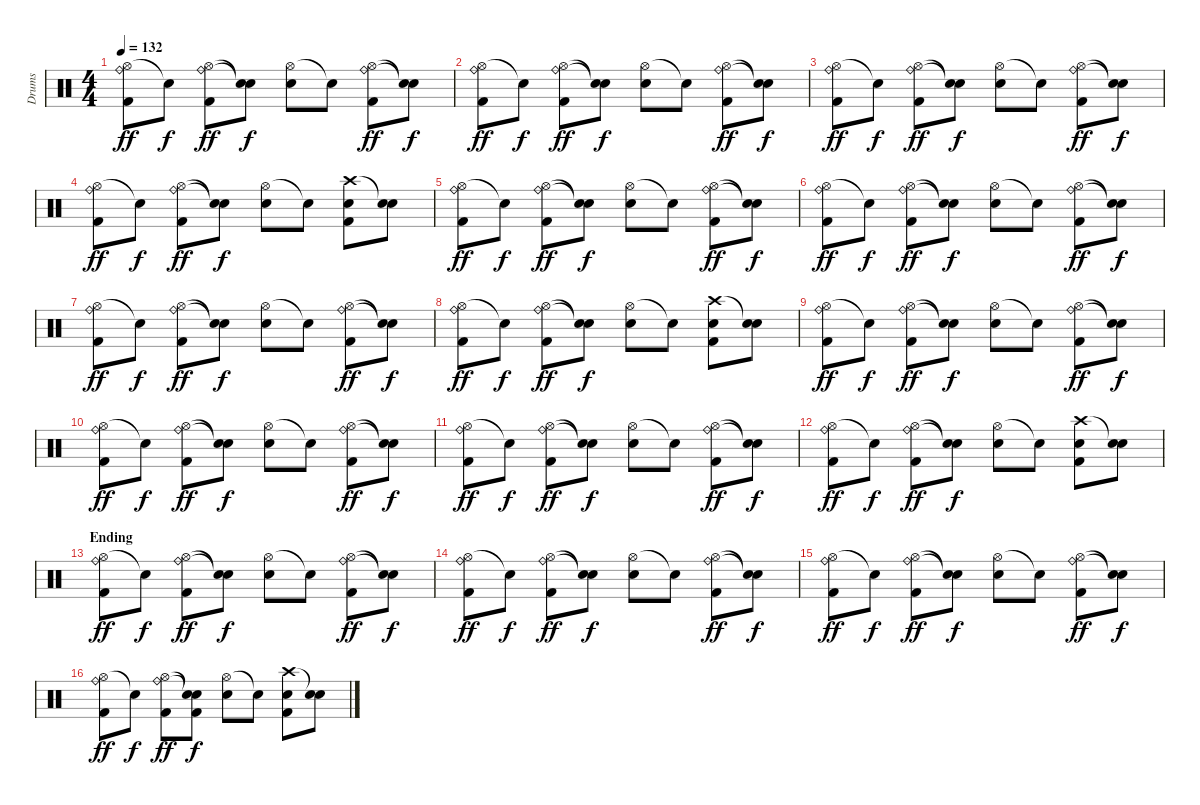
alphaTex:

\track ("Drums" "Drums") {instrument percussion}
\staff {score}
\articulation defaults
\ts (4 4)
\tempo 132
\clef neutral
\ks c
("Hi-Hat (open)" "Ride (bell)" "Kick (hit) 2").8{dy ff} "Snare (hit)"{t}.8{dy f} ("Hi-Hat (open)" "Ride (bell)" "Kick (hit) 2").8{dy ff} ("Snare (hit)"{t} "Snare (hit)"{t}).8{dy f} ("Hi-Hat (open)" "Electric Snare (hit)").8 "Snare (hit)"{t}.8 ("Hi-Hat (open)" "Ride (bell)" "Kick (hit) 2").8{dy ff} ("Snare (hit)"{t} "Snare (hit)"{t}).8{dy f} |
("Hi-Hat (open)" "Ride (bell)" "Kick (hit) 2").8{dy ff} "Snare (hit)"{t}.8{dy f} ("Hi-Hat (open)" "Ride (bell)" "Kick (hit) 2").8{dy ff} ("Snare (hit)"{t} "Snare (hit)"{t}).8{dy f} ("Hi-Hat (open)" "Electric Snare (hit)").8 "Snare (hit)"{t}.8 ("Hi-Hat (open)" "Ride (bell)" "Kick (hit) 2").8{dy ff} ("Snare (hit)"{t} "Snare (hit)"{t}).8{dy f} |
("Hi-Hat (open)" "Ride (bell)" "Kick (hit) 2").8{dy ff} "Snare (hit)"{t}.8{dy f} ("Hi-Hat (open)" "Ride (bell)" "Kick (hit) 2").8{dy ff} ("Snare (hit)"{t} "Snare (hit)"{t}).8{dy f} ("Hi-Hat (open)" "Electric Snare (hit)").8 "Snare (hit)"{t}.8 ("Hi-Hat (open)" "Ride (bell)" "Kick (hit) 2").8{dy ff} ("Snare (hit)"{t} "Snare (hit)"{t}).8{dy f} |
("Hi-Hat (open)" "Ride (bell)" "Kick (hit) 2").8{dy ff} "Snare (hit)"{t}.8{dy f} ("Hi-Hat (open)" "Ride (bell)" "Kick (hit) 2").8{dy ff} ("Snare (hit)"{t} "Snare (hit)"{t}).8{dy f} ("Hi-Hat (open)" "Electric Snare (hit)").8 "Snare (hit)"{t}.8 ("Crash high (hit)" "Electric Snare (hit)" "Kick (hit) 2").8 ("Snare (hit)"{t} "Electric Snare (hit)").8 |
("Hi-Hat (open)" "Ride (bell)" "Kick (hit) 2").8{dy ff} "Snare (hit)"{t}.8{dy f} ("Hi-Hat (open)" "Ride (bell)" "Kick (hit) 2").8{dy ff} ("Snare (hit)"{t} "Snare (hit)"{t}).8{dy f} ("Hi-Hat (open)" "Electric Snare (hit)").8 "Snare (hit)"{t}.8 ("Hi-Hat (open)" "Ride (bell)" "Kick (hit) 2").8{dy ff} ("Snare (hit)"{t} "Snare (hit)"{t}).8{dy f} |
("Hi-Hat (open)" "Ride (bell)" "Kick (hit) 2").8{dy ff} "Snare (hit)"{t}.8{dy f} ("Hi-Hat (open)" "Ride (bell)" "Kick (hit) 2").8{dy ff} ("Snare (hit)"{t} "Snare (hit)"{t}).8{dy f} ("Hi-Hat (open)" "Electric Snare (hit)").8 "Snare (hit)"{t}.8 ("Hi-Hat (open)" "Ride (bell)" "Kick (hit) 2").8{dy ff} ("Snare (hit)"{t} "Snare (hit)"{t}).8{dy f} |
("Hi-Hat (open)" "Ride (bell)" "Kick (hit) 2").8{dy ff} "Snare (hit)"{t}.8{dy f} ("Hi-Hat (open)" "Ride (bell)" "Kick (hit) 2").8{dy ff} ("Snare (hit)"{t} "Snare (hit)"{t}).8{dy f} ("Hi-Hat (open)" "Electric Snare (hit)").8 "Snare (hit)"{t}.8 ("Hi-Hat (open)" "Ride (bell)" "Kick (hit) 2").8{dy ff} ("Snare (hit)"{t} "Snare (hit)"{t}).8{dy f} |
("Hi-Hat (open)" "Ride (bell)" "Kick (hit) 2").8{dy ff} "Snare (hit)"{t}.8{dy f} ("Hi-Hat (open)" "Ride (bell)" "Kick (hit) 2").8{dy ff} ("Snare (hit)"{t} "Snare (hit)"{t}).8{dy f} ("Hi-Hat (open)" "Electric Snare (hit)").8 "Snare (hit)"{t}.8 ("Crash high (hit)" "Electric Snare (hit)" "Kick (hit) 2").8 ("Snare (hit)"{t} "Electric Snare (hit)").8 |
("Hi-Hat (open)" "Ride (bell)" "Kick (hit) 2").8{dy ff} "Snare (hit)"{t}.8{dy f} ("Hi-Hat (open)" "Ride (bell)" "Kick (hit) 2").8{dy ff} ("Snare (hit)"{t} "Snare (hit)"{t}).8{dy f} ("Hi-Hat (open)" "Electric Snare (hit)").8 "Snare (hit)"{t}.8 ("Hi-Hat (open)" "Ride (bell)" "Kick (hit) 2").8{dy ff} ("Snare (hit)"{t} "Snare (hit)"{t}).8{dy f} |
("Hi-Hat (open)" "Ride (bell)" "Kick (hit) 2").8{dy ff} "Snare (hit)"{t}.8{dy f} ("Hi-Hat (open)" "Ride (bell)" "Kick (hit) 2").8{dy ff} ("Snare (hit)"{t} "Snare (hit)"{t}).8{dy f} ("Hi-Hat (open)" "Electric Snare (hit)").8 "Snare (hit)"{t}.8 ("Hi-Hat (open)" "Ride (bell)" "Kick (hit) 2").8{dy ff} ("Snare (hit)"{t} "Snare (hit)"{t}).8{dy f} |
("Hi-Hat (open)" "Ride (bell)" "Kick (hit) 2").8{dy ff} "Snare (hit)"{t}.8{dy f} ("Hi-Hat (open)" "Ride (bell)" "Kick (hit) 2").8{dy ff} ("Snare (hit)"{t} "Snare (hit)"{t}).8{dy f} ("Hi-Hat (open)" "Electric Snare (hit)").8 "Snare (hit)"{t}.8 ("Hi-Hat (open)" "Ride (bell)" "Kick (hit) 2").8{dy ff} ("Snare (hit)"{t} "Snare (hit)"{t}).8{dy f} |
("Hi-Hat (open)" "Ride (bell)" "Kick (hit) 2").8{dy ff} "Snare (hit)"{t}.8{dy f} ("Hi-Hat (open)" "Ride (bell)" "Kick (hit) 2").8{dy ff} ("Snare (hit)"{t} "Snare (hit)"{t}).8{dy f} ("Hi-Hat (open)" "Electric Snare (hit)").8 "Snare (hit)"{t}.8 ("Crash high (hit)" "Electric Snare (hit)" "Kick (hit) 2").8 ("Snare (hit)"{t} "Electric Snare (hit)").8 |
\section ("" "Ending")
("Hi-Hat (open)" "Ride (bell)" "Kick (hit) 2").8{dy ff} "Snare (hit)"{t}.8{dy f} ("Hi-Hat (open)" "Ride (bell)" "Kick (hit) 2").8{dy ff} ("Snare (hit)"{t} "Snare (hit)"{t}).8{dy f} ("Hi-Hat (open)" "Electric Snare (hit)").8 "Snare (hit)"{t}.8 ("Hi-Hat (open)" "Ride (bell)" "Kick (hit) 2").8{dy ff} ("Snare (hit)"{t} "Snare (hit)"{t}).8{dy f} |
("Hi-Hat (open)" "Ride (bell)" "Kick (hit) 2").8{dy ff} "Snare (hit)"{t}.8{dy f} ("Hi-Hat (open)" "Ride (bell)" "Kick (hit) 2").8{dy ff} ("Snare (hit)"{t} "Snare (hit)"{t}).8{dy f} ("Hi-Hat (open)" "Electric Snare (hit)").8 "Snare (hit)"{t}.8 ("Hi-Hat (open)" "Ride (bell)" "Kick (hit) 2").8{dy ff} ("Snare (hit)"{t} "Snare (hit)"{t}).8{dy f} |
("Hi-Hat (open)" "Ride (bell)" "Kick (hit) 2").8{dy ff} "Snare (hit)"{t}.8{dy f} ("Hi-Hat (open)" "Ride (bell)" "Kick (hit) 2").8{dy ff} ("Snare (hit)"{t} "Snare (hit)"{t}).8{dy f} ("Hi-Hat (open)" "Electric Snare (hit)").8 "Snare (hit)"{t}.8 ("Hi-Hat (open)" "Ride (bell)" "Kick (hit) 2").8{dy ff} ("Snare (hit)"{t} "Snare (hit)"{t}).8{dy f} |
("Hi-Hat (open)" "Ride (bell)" "Kick (hit) 2").8{dy ff} "Snare (hit)"{t}.8{dy f} ("Hi-Hat (open)" "Ride (bell)" "Kick (hit) 2").8{dy ff} ("Snare (hit)"{t} "Snare (hit)"{t} "Kick (hit) 2").8{dy f} ("Hi-Hat (open)" "Electric Snare (hit)").8 "Snare (hit)"{t}.8 ("Crash high (hit)" "Electric Snare (hit)" "Kick (hit) 2").8 ("Snare (hit)"{t} "Electric Snare (hit)").8
